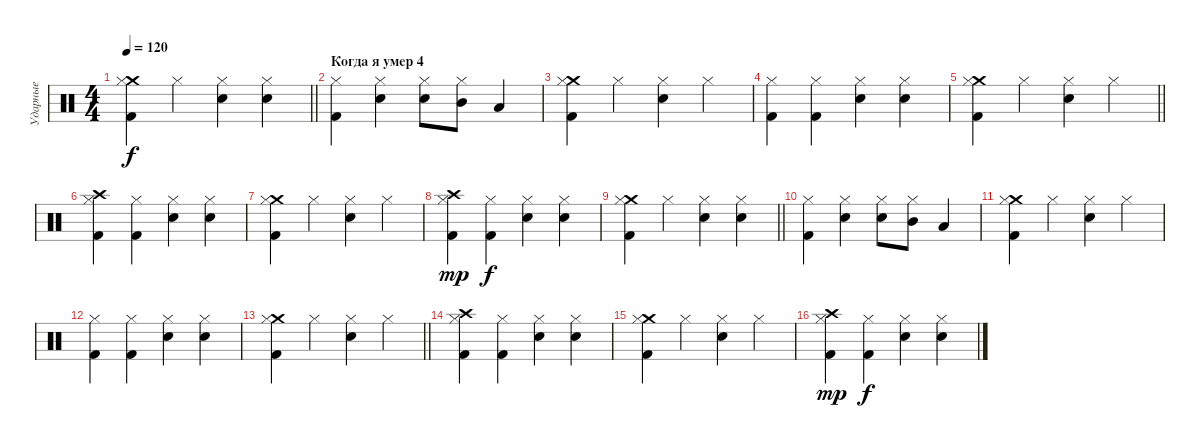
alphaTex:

\track ("Ударные" "Ударные") {instrument percussion}
\staff {score}
\articulation defaults
\ts (4 4)
\tempo 120
\clef neutral
\barLineRight lightlight
\ks c
("Crash medium (hit)" "Hi-Hat (closed)" "Kick (hit) 2").4{dy f} "Hi-Hat (closed)".4 ("Snare (hit) 2" "Hi-Hat (closed)").4 ("Snare (hit) 2" "Hi-Hat (closed)").4 |
\section ("" "Когда я умер 4")
("Hi-Hat (closed)" "Kick (hit) 2").4 ("Snare (hit) 2" "Hi-Hat (closed)").4 ("Snare (hit) 2" "Hi-Hat (closed)").8 ("Mid Tom (hit)" "Hi-Hat (closed)").8 "Low Tom (hit)".4 |
("Crash medium (hit)" "Hi-Hat (closed)" "Kick (hit) 2").4 "Hi-Hat (closed)".4 ("Snare (hit) 2" "Hi-Hat (closed)").4 "Hi-Hat (closed)".4 |
("Hi-Hat (closed)" "Kick (hit) 2").4 ("Hi-Hat (closed)" "Kick (hit) 2").4 ("Snare (hit) 2" "Hi-Hat (closed)").4 ("Snare (hit) 2" "Hi-Hat (closed)").4 |
\barLineRight lightlight
("Crash medium (hit)" "Hi-Hat (closed)" "Kick (hit) 2").4 "Hi-Hat (closed)".4 ("Snare (hit) 2" "Hi-Hat (closed)").4 "Hi-Hat (closed)".4 |
("Crash high (hit)" "Hi-Hat (closed)" "Kick (hit) 2").4 ("Hi-Hat (closed)" "Kick (hit) 2").4 ("Snare (hit) 2" "Hi-Hat (closed)").4 ("Snare (hit) 2" "Hi-Hat (closed)").4 |
("Crash medium (hit)" "Hi-Hat (closed)" "Kick (hit) 2").4 "Hi-Hat (closed)".4 ("Snare (hit) 2" "Hi-Hat (closed)").4 "Hi-Hat (closed)".4 |
("Crash high (hit)" "Hi-Hat (closed)" "Kick (hit) 2").4{dy mp} ("Hi-Hat (closed)" "Kick (hit) 2").4{dy f} ("Snare (hit) 2" "Hi-Hat (closed)").4 ("Snare (hit) 2" "Hi-Hat (closed)").4 |
\barLineRight lightlight
("Crash medium (hit)" "Hi-Hat (closed)" "Kick (hit) 2").4 "Hi-Hat (closed)".4 ("Snare (hit) 2" "Hi-Hat (closed)").4 ("Snare (hit) 2" "Hi-Hat (closed)").4 |
("Hi-Hat (closed)" "Kick (hit) 2").4 ("Snare (hit) 2" "Hi-Hat (closed)").4 ("Snare (hit) 2" "Hi-Hat (closed)").8 ("Mid Tom (hit)" "Hi-Hat (closed)").8 "Low Tom (hit)".4 |
("Crash medium (hit)" "Hi-Hat (closed)" "Kick (hit) 2").4 "Hi-Hat (closed)".4 ("Snare (hit) 2" "Hi-Hat (closed)").4 "Hi-Hat (closed)".4 |
("Hi-Hat (closed)" "Kick (hit) 2").4 ("Hi-Hat (closed)" "Kick (hit) 2").4 ("Snare (hit) 2" "Hi-Hat (closed)").4 ("Snare (hit) 2" "Hi-Hat (closed)").4 |
\barLineRight lightlight
("Crash medium (hit)" "Hi-Hat (closed)" "Kick (hit) 2").4 "Hi-Hat (closed)".4 ("Snare (hit) 2" "Hi-Hat (closed)").4 "Hi-Hat (closed)".4 |
("Crash high (hit)" "Hi-Hat (closed)" "Kick (hit) 2").4 ("Hi-Hat (closed)" "Kick (hit) 2").4 ("Snare (hit) 2" "Hi-Hat (closed)").4 ("Snare (hit) 2" "Hi-Hat (closed)").4 |
("Crash medium (hit)" "Hi-Hat (closed)" "Kick (hit) 2").4 "Hi-Hat (closed)".4 ("Snare (hit) 2" "Hi-Hat (closed)").4 "Hi-Hat (closed)".4 |
("Crash high (hit)" "Hi-Hat (closed)" "Kick (hit) 2").4{dy mp} ("Hi-Hat (closed)" "Kick (hit) 2").4{dy f} ("Snare (hit) 2" "Hi-Hat (closed)").4 ("Snare (hit) 2" "Hi-Hat (closed)").4
